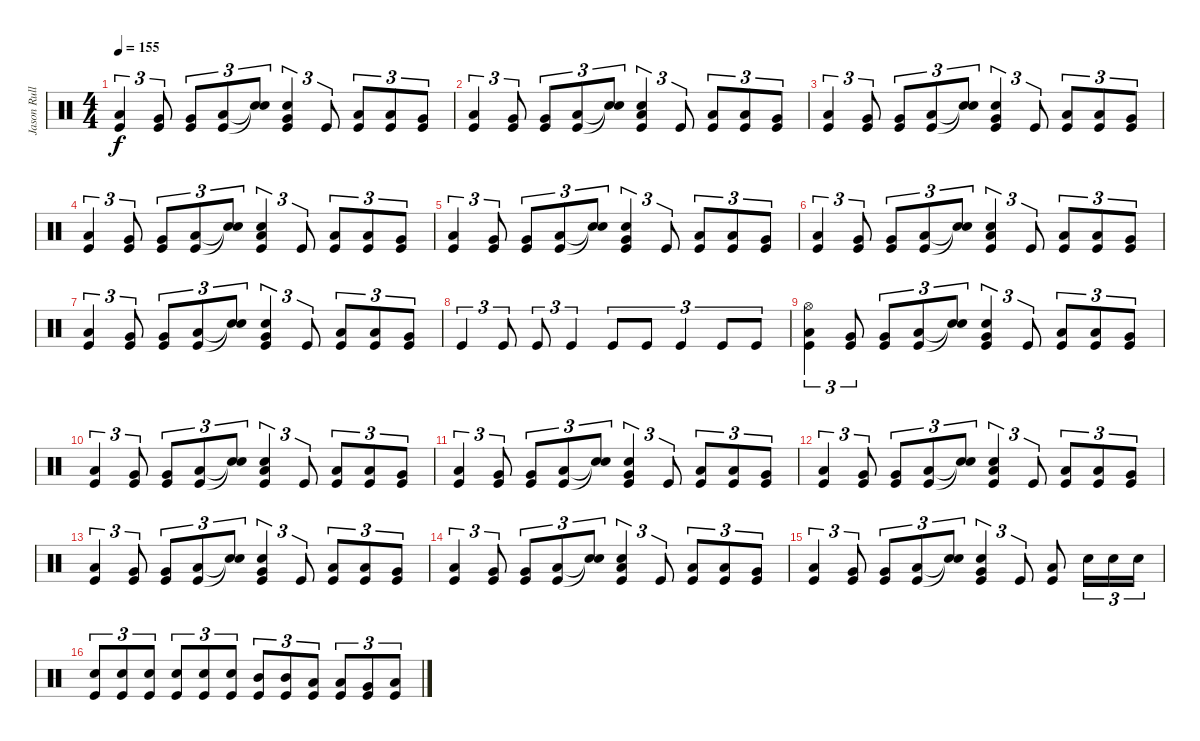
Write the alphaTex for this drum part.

\track ("Jason Rullo - BATTERIE" "Jason Rull") {instrument percussion}
\staff {score}
\articulation defaults
\ts (4 4)
\tempo 155
\clef neutral
\ks c
("Low Tom (hit)" "Kick (hit)").4{tu (3 2) dy f} ("Very Low Tom (hit)" "Kick (hit)").8{tu (3 2)} ("Very Low Tom (hit)" "Kick (hit)").8{tu (3 2)} ("Low Floor Tom (hit)" "Kick (hit)").8{tu (3 2)} ("Snare (hit)"{t} "Snare (hit)"{t}).8{tu (3 2)} ("Very Low Tom (hit)" "Snare (hit) 2" "Kick (hit)").4{tu (3 2)} "Kick (hit)".8{tu (3 2)} ("Low Tom (hit)" "Kick (hit)").8{tu (3 2)} ("Low Tom (hit)" "Kick (hit)").8{tu (3 2)} ("Very Low Tom (hit)" "Kick (hit)").8{tu (3 2)} |
("Low Tom (hit)" "Kick (hit)").4{tu (3 2)} ("Very Low Tom (hit)" "Kick (hit)").8{tu (3 2)} ("Very Low Tom (hit)" "Kick (hit)").8{tu (3 2)} ("Low Floor Tom (hit)" "Kick (hit)").8{tu (3 2)} ("Snare (hit)"{t} "Snare (hit)"{t}).8{tu (3 2)} ("Low Floor Tom (hit)" "Snare (hit) 2" "Kick (hit)").4{tu (3 2)} "Kick (hit)".8{tu (3 2)} ("Low Tom (hit)" "Kick (hit)").8{tu (3 2)} ("Low Tom (hit)" "Kick (hit)").8{tu (3 2)} ("Very Low Tom (hit)" "Kick (hit)").8{tu (3 2)} |
("Low Tom (hit)" "Kick (hit)").4{tu (3 2)} ("Very Low Tom (hit)" "Kick (hit)").8{tu (3 2)} ("Very Low Tom (hit)" "Kick (hit)").8{tu (3 2)} ("Low Floor Tom (hit)" "Kick (hit)").8{tu (3 2)} ("Snare (hit)"{t} "Snare (hit)"{t}).8{tu (3 2)} ("Very Low Tom (hit)" "Snare (hit) 2" "Kick (hit)").4{tu (3 2)} "Kick (hit)".8{tu (3 2)} ("Low Tom (hit)" "Kick (hit)").8{tu (3 2)} ("Low Tom (hit)" "Kick (hit)").8{tu (3 2)} ("Very Low Tom (hit)" "Kick (hit)").8{tu (3 2)} |
("Low Tom (hit)" "Kick (hit)").4{tu (3 2)} ("Very Low Tom (hit)" "Kick (hit)").8{tu (3 2)} ("Very Low Tom (hit)" "Kick (hit)").8{tu (3 2)} ("Low Floor Tom (hit)" "Kick (hit)").8{tu (3 2)} ("Snare (hit)"{t} "Snare (hit)"{t}).8{tu (3 2)} ("Low Floor Tom (hit)" "Snare (hit) 2" "Kick (hit)").4{tu (3 2)} "Kick (hit)".8{tu (3 2)} ("Low Tom (hit)" "Kick (hit)").8{tu (3 2)} ("Low Tom (hit)" "Kick (hit)").8{tu (3 2)} ("Very Low Tom (hit)" "Kick (hit)").8{tu (3 2)} |
("Low Tom (hit)" "Kick (hit)").4{tu (3 2)} ("Very Low Tom (hit)" "Kick (hit)").8{tu (3 2)} ("Very Low Tom (hit)" "Kick (hit)").8{tu (3 2)} ("Low Floor Tom (hit)" "Kick (hit)").8{tu (3 2)} ("Snare (hit)"{t} "Snare (hit)"{t}).8{tu (3 2)} ("Very Low Tom (hit)" "Snare (hit) 2" "Kick (hit)").4{tu (3 2)} "Kick (hit)".8{tu (3 2)} ("Low Tom (hit)" "Kick (hit)").8{tu (3 2)} ("Low Tom (hit)" "Kick (hit)").8{tu (3 2)} ("Very Low Tom (hit)" "Kick (hit)").8{tu (3 2)} |
("Low Tom (hit)" "Kick (hit)").4{tu (3 2)} ("Very Low Tom (hit)" "Kick (hit)").8{tu (3 2)} ("Very Low Tom (hit)" "Kick (hit)").8{tu (3 2)} ("Low Floor Tom (hit)" "Kick (hit)").8{tu (3 2)} ("Snare (hit)"{t} "Snare (hit)"{t}).8{tu (3 2)} ("Low Floor Tom (hit)" "Snare (hit) 2" "Kick (hit)").4{tu (3 2)} "Kick (hit)".8{tu (3 2)} ("Low Tom (hit)" "Kick (hit)").8{tu (3 2)} ("Low Tom (hit)" "Kick (hit)").8{tu (3 2)} ("Very Low Tom (hit)" "Kick (hit)").8{tu (3 2)} |
("Low Tom (hit)" "Kick (hit)").4{tu (3 2)} ("Very Low Tom (hit)" "Kick (hit)").8{tu (3 2)} ("Very Low Tom (hit)" "Kick (hit)").8{tu (3 2)} ("Low Floor Tom (hit)" "Kick (hit)").8{tu (3 2)} ("Snare (hit)"{t} "Snare (hit)"{t}).8{tu (3 2)} ("Very Low Tom (hit)" "Snare (hit) 2" "Kick (hit)").4{tu (3 2)} "Kick (hit)".8{tu (3 2)} ("Low Tom (hit)" "Kick (hit)").8{tu (3 2)} ("Low Tom (hit)" "Kick (hit)").8{tu (3 2)} ("Very Low Tom (hit)" "Kick (hit)").8{tu (3 2)} |
"Kick (hit)".4{tu (3 2)} "Kick (hit)".8{tu (3 2)} "Kick (hit)".8{tu (3 2)} "Kick (hit)".4{tu (3 2)} "Kick (hit)".8{tu (3 2)} "Kick (hit)".8{tu (3 2)} "Kick (hit)".4{tu (3 2)} "Kick (hit)".8{tu (3 2)} "Kick (hit)".8{tu (3 2)} |
("Hi-Hat (open)" "Low Tom (hit)" "Kick (hit)").4{tu (3 2)} ("Very Low Tom (hit)" "Kick (hit)").8{tu (3 2)} ("Very Low Tom (hit)" "Kick (hit)").8{tu (3 2)} ("Low Floor Tom (hit)" "Kick (hit)").8{tu (3 2)} ("Snare (hit)"{t} "Snare (hit)"{t}).8{tu (3 2)} ("Very Low Tom (hit)" "Snare (hit) 2" "Kick (hit)").4{tu (3 2)} "Kick (hit)".8{tu (3 2)} ("Low Tom (hit)" "Kick (hit)").8{tu (3 2)} ("Low Tom (hit)" "Kick (hit)").8{tu (3 2)} ("Very Low Tom (hit)" "Kick (hit)").8{tu (3 2)} |
("Low Tom (hit)" "Kick (hit)").4{tu (3 2)} ("Very Low Tom (hit)" "Kick (hit)").8{tu (3 2)} ("Very Low Tom (hit)" "Kick (hit)").8{tu (3 2)} ("Low Floor Tom (hit)" "Kick (hit)").8{tu (3 2)} ("Snare (hit)"{t} "Snare (hit)"{t}).8{tu (3 2)} ("Low Floor Tom (hit)" "Snare (hit) 2" "Kick (hit)").4{tu (3 2)} "Kick (hit)".8{tu (3 2)} ("Low Tom (hit)" "Kick (hit)").8{tu (3 2)} ("Low Tom (hit)" "Kick (hit)").8{tu (3 2)} ("Very Low Tom (hit)" "Kick (hit)").8{tu (3 2)} |
("Low Tom (hit)" "Kick (hit)").4{tu (3 2)} ("Very Low Tom (hit)" "Kick (hit)").8{tu (3 2)} ("Very Low Tom (hit)" "Kick (hit)").8{tu (3 2)} ("Low Floor Tom (hit)" "Kick (hit)").8{tu (3 2)} ("Snare (hit)"{t} "Snare (hit)"{t}).8{tu (3 2)} ("Very Low Tom (hit)" "Snare (hit) 2" "Kick (hit)").4{tu (3 2)} "Kick (hit)".8{tu (3 2)} ("Low Tom (hit)" "Kick (hit)").8{tu (3 2)} ("Low Tom (hit)" "Kick (hit)").8{tu (3 2)} ("Very Low Tom (hit)" "Kick (hit)").8{tu (3 2)} |
("Low Tom (hit)" "Kick (hit)").4{tu (3 2)} ("Very Low Tom (hit)" "Kick (hit)").8{tu (3 2)} ("Very Low Tom (hit)" "Kick (hit)").8{tu (3 2)} ("Low Floor Tom (hit)" "Kick (hit)").8{tu (3 2)} ("Snare (hit)"{t} "Snare (hit)"{t}).8{tu (3 2)} ("Low Floor Tom (hit)" "Snare (hit) 2" "Kick (hit)").4{tu (3 2)} "Kick (hit)".8{tu (3 2)} ("Low Tom (hit)" "Kick (hit)").8{tu (3 2)} ("Low Tom (hit)" "Kick (hit)").8{tu (3 2)} ("Very Low Tom (hit)" "Kick (hit)").8{tu (3 2)} |
("Low Tom (hit)" "Kick (hit)").4{tu (3 2)} ("Very Low Tom (hit)" "Kick (hit)").8{tu (3 2)} ("Very Low Tom (hit)" "Kick (hit)").8{tu (3 2)} ("Low Floor Tom (hit)" "Kick (hit)").8{tu (3 2)} ("Snare (hit)"{t} "Snare (hit)"{t}).8{tu (3 2)} ("Very Low Tom (hit)" "Snare (hit) 2" "Kick (hit)").4{tu (3 2)} "Kick (hit)".8{tu (3 2)} ("Low Tom (hit)" "Kick (hit)").8{tu (3 2)} ("Low Tom (hit)" "Kick (hit)").8{tu (3 2)} ("Very Low Tom (hit)" "Kick (hit)").8{tu (3 2)} |
("Low Tom (hit)" "Kick (hit)").4{tu (3 2)} ("Very Low Tom (hit)" "Kick (hit)").8{tu (3 2)} ("Very Low Tom (hit)" "Kick (hit)").8{tu (3 2)} ("Low Floor Tom (hit)" "Kick (hit)").8{tu (3 2)} ("Snare (hit)"{t} "Snare (hit)"{t}).8{tu (3 2)} ("Low Floor Tom (hit)" "Snare (hit) 2" "Kick (hit)").4{tu (3 2)} "Kick (hit)".8{tu (3 2)} ("Low Tom (hit)" "Kick (hit)").8{tu (3 2)} ("Low Tom (hit)" "Kick (hit)").8{tu (3 2)} ("Very Low Tom (hit)" "Kick (hit)").8{tu (3 2)} |
("Low Tom (hit)" "Kick (hit)").4{tu (3 2)} ("Very Low Tom (hit)" "Kick (hit)").8{tu (3 2)} ("Very Low Tom (hit)" "Kick (hit)").8{tu (3 2)} ("Low Floor Tom (hit)" "Kick (hit)").8{tu (3 2)} ("Snare (hit)"{t} "Snare (hit)"{t}).8{tu (3 2)} ("Very Low Tom (hit)" "Snare (hit) 2" "Kick (hit)").4{tu (3 2)} "Kick (hit)".8{tu (3 2)} ("Low Tom (hit)" "Kick (hit)").8 "Snare (hit) 2".16{tu (3 2)} "Snare (hit) 2".16{tu (3 2)} "Snare (hit) 2".16{tu (3 2)} |
("Snare (hit) 2" "Kick (hit)").8{tu (3 2)} ("Snare (hit) 2" "Kick (hit)").8{tu (3 2)} ("Snare (hit) 2" "Kick (hit)").8{tu (3 2)} ("Snare (hit) 2" "Kick (hit)").8{tu (3 2)} ("Snare (hit) 2" "Kick (hit)").8{tu (3 2)} ("Snare (hit) 2" "Kick (hit)").8{tu (3 2)} ("Mid Tom (hit)" "Kick (hit)").8{tu (3 2)} ("Mid Tom (hit)" "Kick (hit)").8{tu (3 2)} ("Low Tom (hit)" "Kick (hit)").8{tu (3 2)} ("Low Tom (hit)" "Kick (hit)").8{tu (3 2)} ("Very Low Tom (hit)" "Kick (hit)").8{tu (3 2)} ("Low Floor Tom (hit)" "Kick (hit)").8{tu (3 2)}
